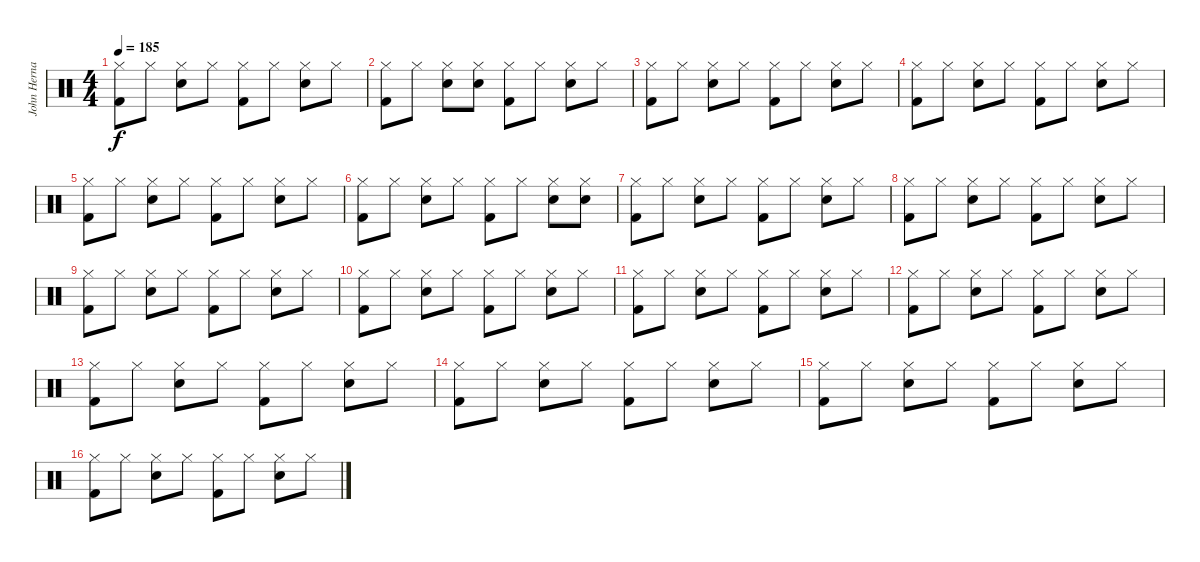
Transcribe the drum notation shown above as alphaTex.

\track ("John Hernandez" "John Herna") {instrument percussion}
\staff {score}
\articulation defaults
\ts (4 4)
\tempo 185
\clef neutral
\ks c
("Hi-Hat (closed)" "Kick (hit) 2").8{dy f} "Hi-Hat (closed)".8 ("Hi-Hat (closed)" "Snare (hit) 2").8 "Hi-Hat (closed)".8 ("Hi-Hat (closed)" "Kick (hit) 2").8 "Hi-Hat (closed)".8 ("Hi-Hat (closed)" "Snare (hit) 2").8 "Hi-Hat (closed)".8 |
("Hi-Hat (closed)" "Kick (hit) 2").8 "Hi-Hat (closed)".8 ("Hi-Hat (closed)" "Snare (hit) 2").8 ("Hi-Hat (closed)" "Snare (hit) 2").8 ("Hi-Hat (closed)" "Kick (hit) 2").8 "Hi-Hat (closed)".8 ("Hi-Hat (closed)" "Snare (hit) 2").8 "Hi-Hat (closed)".8 |
("Hi-Hat (closed)" "Kick (hit) 2").8 "Hi-Hat (closed)".8 ("Hi-Hat (closed)" "Snare (hit) 2").8 "Hi-Hat (closed)".8 ("Hi-Hat (closed)" "Kick (hit) 2").8 "Hi-Hat (closed)".8 ("Hi-Hat (closed)" "Snare (hit) 2").8 "Hi-Hat (closed)".8 |
("Hi-Hat (closed)" "Kick (hit) 2").8 "Hi-Hat (closed)".8 ("Hi-Hat (closed)" "Snare (hit) 2").8 "Hi-Hat (closed)".8 ("Hi-Hat (closed)" "Kick (hit) 2").8 "Hi-Hat (closed)".8 ("Hi-Hat (closed)" "Snare (hit) 2").8 "Hi-Hat (closed)".8 |
("Hi-Hat (closed)" "Kick (hit) 2").8 "Hi-Hat (closed)".8 ("Hi-Hat (closed)" "Snare (hit) 2").8 "Hi-Hat (closed)".8 ("Hi-Hat (closed)" "Kick (hit) 2").8 "Hi-Hat (closed)".8 ("Hi-Hat (closed)" "Snare (hit) 2").8 "Hi-Hat (closed)".8 |
("Hi-Hat (closed)" "Kick (hit) 2").8 "Hi-Hat (closed)".8 ("Hi-Hat (closed)" "Snare (hit) 2").8 "Hi-Hat (closed)".8 ("Hi-Hat (closed)" "Kick (hit) 2").8 "Hi-Hat (closed)".8 ("Hi-Hat (closed)" "Snare (hit) 2").8 ("Hi-Hat (closed)" "Snare (hit) 2").8 |
("Hi-Hat (closed)" "Kick (hit) 2").8 "Hi-Hat (closed)".8 ("Hi-Hat (closed)" "Snare (hit) 2").8 "Hi-Hat (closed)".8 ("Hi-Hat (closed)" "Kick (hit) 2").8 "Hi-Hat (closed)".8 ("Hi-Hat (closed)" "Snare (hit) 2").8 "Hi-Hat (closed)".8 |
("Hi-Hat (closed)" "Kick (hit) 2").8 "Hi-Hat (closed)".8 ("Hi-Hat (closed)" "Snare (hit) 2").8 "Hi-Hat (closed)".8 ("Hi-Hat (closed)" "Kick (hit) 2").8 "Hi-Hat (closed)".8 ("Hi-Hat (closed)" "Snare (hit) 2").8 "Hi-Hat (closed)".8 |
("Hi-Hat (closed)" "Kick (hit) 2").8 "Hi-Hat (closed)".8 ("Hi-Hat (closed)" "Snare (hit) 2").8 "Hi-Hat (closed)".8 ("Hi-Hat (closed)" "Kick (hit) 2").8 "Hi-Hat (closed)".8 ("Hi-Hat (closed)" "Snare (hit) 2").8 "Hi-Hat (closed)".8 |
("Hi-Hat (closed)" "Kick (hit) 2").8 "Hi-Hat (closed)".8 ("Hi-Hat (closed)" "Snare (hit) 2").8 "Hi-Hat (closed)".8 ("Hi-Hat (closed)" "Kick (hit) 2").8 "Hi-Hat (closed)".8 ("Hi-Hat (closed)" "Snare (hit) 2").8 "Hi-Hat (closed)".8 |
("Hi-Hat (closed)" "Kick (hit) 2").8 "Hi-Hat (closed)".8 ("Hi-Hat (closed)" "Snare (hit) 2").8 "Hi-Hat (closed)".8 ("Hi-Hat (closed)" "Kick (hit) 2").8 "Hi-Hat (closed)".8 ("Hi-Hat (closed)" "Snare (hit) 2").8 "Hi-Hat (closed)".8 |
("Hi-Hat (closed)" "Kick (hit) 2").8 "Hi-Hat (closed)".8 ("Hi-Hat (closed)" "Snare (hit) 2").8 "Hi-Hat (closed)".8 ("Hi-Hat (closed)" "Kick (hit) 2").8 "Hi-Hat (closed)".8 ("Hi-Hat (closed)" "Snare (hit) 2").8 "Hi-Hat (closed)".8 |
("Hi-Hat (closed)" "Kick (hit) 2").8 "Hi-Hat (closed)".8 ("Hi-Hat (closed)" "Snare (hit) 2").8 "Hi-Hat (closed)".8 ("Hi-Hat (closed)" "Kick (hit) 2").8 "Hi-Hat (closed)".8 ("Hi-Hat (closed)" "Snare (hit) 2").8 "Hi-Hat (closed)".8 |
("Hi-Hat (closed)" "Kick (hit) 2").8 "Hi-Hat (closed)".8 ("Hi-Hat (closed)" "Snare (hit) 2").8 "Hi-Hat (closed)".8 ("Hi-Hat (closed)" "Kick (hit) 2").8 "Hi-Hat (closed)".8 ("Hi-Hat (closed)" "Snare (hit) 2").8 "Hi-Hat (closed)".8 |
("Hi-Hat (closed)" "Kick (hit) 2").8 "Hi-Hat (closed)".8 ("Hi-Hat (closed)" "Snare (hit) 2").8 "Hi-Hat (closed)".8 ("Hi-Hat (closed)" "Kick (hit) 2").8 "Hi-Hat (closed)".8 ("Hi-Hat (closed)" "Snare (hit) 2").8 "Hi-Hat (closed)".8 |
("Hi-Hat (closed)" "Kick (hit) 2").8 "Hi-Hat (closed)".8 ("Hi-Hat (closed)" "Snare (hit) 2").8 "Hi-Hat (closed)".8 ("Hi-Hat (closed)" "Kick (hit) 2").8 "Hi-Hat (closed)".8 ("Hi-Hat (closed)" "Snare (hit) 2").8 "Hi-Hat (closed)".8
